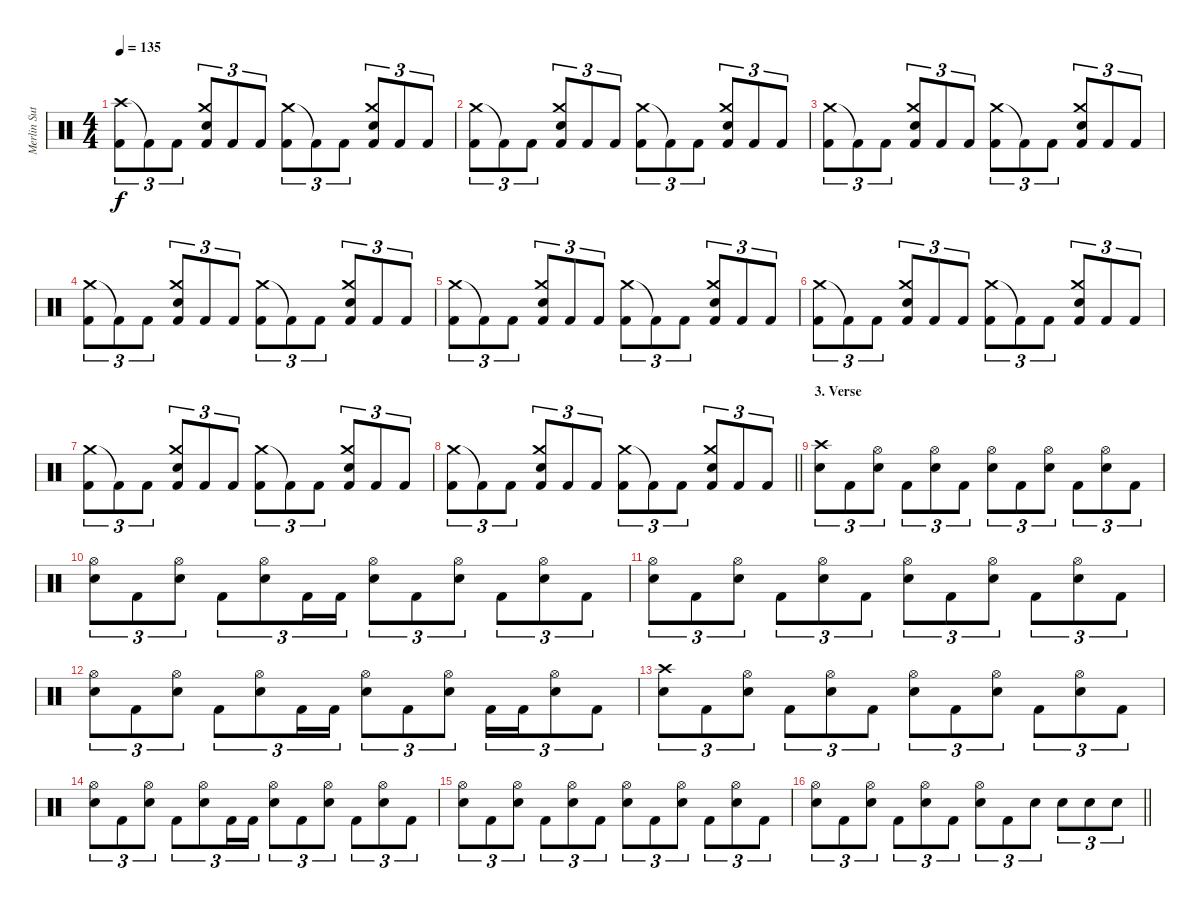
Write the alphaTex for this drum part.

\track ("Merlin Sutter" "Merlin Sut") {instrument percussion}
\staff {score}
\articulation defaults
\ts (4 4)
\tempo 135
\clef neutral
\ks c
("Crash high (hit)" "Kick (hit) 2").8{tu (3 2) dy f} "Kick (hit) 2"{t}.8{tu (3 2)} "Kick (hit) 2".8{tu (3 2)} ("Crash medium (hit)" "Snare (hit) 2" "Kick (hit) 2").8{tu (3 2)} "Kick (hit) 2".8{tu (3 2)} "Kick (hit) 2".8{tu (3 2)} ("Crash medium (hit)" "Kick (hit) 2").8{tu (3 2)} "Kick (hit) 2"{t}.8{tu (3 2)} "Kick (hit) 2".8{tu (3 2)} ("Crash medium (hit)" "Snare (hit) 2" "Kick (hit) 2").8{tu (3 2)} "Kick (hit) 2".8{tu (3 2)} "Kick (hit) 2".8{tu (3 2)} |
("Crash medium (hit)" "Kick (hit) 2").8{tu (3 2)} "Kick (hit) 2"{t}.8{tu (3 2)} "Kick (hit) 2".8{tu (3 2)} ("Crash medium (hit)" "Snare (hit) 2" "Kick (hit) 2").8{tu (3 2)} "Kick (hit) 2".8{tu (3 2)} "Kick (hit) 2".8{tu (3 2)} ("Crash medium (hit)" "Kick (hit) 2").8{tu (3 2)} "Kick (hit) 2"{t}.8{tu (3 2)} "Kick (hit) 2".8{tu (3 2)} ("Crash medium (hit)" "Snare (hit) 2" "Kick (hit) 2").8{tu (3 2)} "Kick (hit) 2".8{tu (3 2)} "Kick (hit) 2".8{tu (3 2)} |
("Crash medium (hit)" "Kick (hit) 2").8{tu (3 2)} "Kick (hit) 2"{t}.8{tu (3 2)} "Kick (hit) 2".8{tu (3 2)} ("Crash medium (hit)" "Snare (hit) 2" "Kick (hit) 2").8{tu (3 2)} "Kick (hit) 2".8{tu (3 2)} "Kick (hit) 2".8{tu (3 2)} ("Crash medium (hit)" "Kick (hit) 2").8{tu (3 2)} "Kick (hit) 2"{t}.8{tu (3 2)} "Kick (hit) 2".8{tu (3 2)} ("Crash medium (hit)" "Snare (hit) 2" "Kick (hit) 2").8{tu (3 2)} "Kick (hit) 2".8{tu (3 2)} "Kick (hit) 2".8{tu (3 2)} |
("Crash medium (hit)" "Kick (hit) 2").8{tu (3 2)} "Kick (hit) 2"{t}.8{tu (3 2)} "Kick (hit) 2".8{tu (3 2)} ("Crash medium (hit)" "Snare (hit) 2" "Kick (hit) 2").8{tu (3 2)} "Kick (hit) 2".8{tu (3 2)} "Kick (hit) 2".8{tu (3 2)} ("Crash medium (hit)" "Kick (hit) 2").8{tu (3 2)} "Kick (hit) 2"{t}.8{tu (3 2)} "Kick (hit) 2".8{tu (3 2)} ("Crash medium (hit)" "Snare (hit) 2" "Kick (hit) 2").8{tu (3 2)} "Kick (hit) 2".8{tu (3 2)} "Kick (hit) 2".8{tu (3 2)} |
("Crash medium (hit)" "Kick (hit) 2").8{tu (3 2)} "Kick (hit) 2"{t}.8{tu (3 2)} "Kick (hit) 2".8{tu (3 2)} ("Crash medium (hit)" "Snare (hit) 2" "Kick (hit) 2").8{tu (3 2)} "Kick (hit) 2".8{tu (3 2)} "Kick (hit) 2".8{tu (3 2)} ("Crash medium (hit)" "Kick (hit) 2").8{tu (3 2)} "Kick (hit) 2"{t}.8{tu (3 2)} "Kick (hit) 2".8{tu (3 2)} ("Crash medium (hit)" "Snare (hit) 2" "Kick (hit) 2").8{tu (3 2)} "Kick (hit) 2".8{tu (3 2)} "Kick (hit) 2".8{tu (3 2)} |
("Crash medium (hit)" "Kick (hit) 2").8{tu (3 2)} "Kick (hit) 2"{t}.8{tu (3 2)} "Kick (hit) 2".8{tu (3 2)} ("Crash medium (hit)" "Snare (hit) 2" "Kick (hit) 2").8{tu (3 2)} "Kick (hit) 2".8{tu (3 2)} "Kick (hit) 2".8{tu (3 2)} ("Crash medium (hit)" "Kick (hit) 2").8{tu (3 2)} "Kick (hit) 2"{t}.8{tu (3 2)} "Kick (hit) 2".8{tu (3 2)} ("Crash medium (hit)" "Snare (hit) 2" "Kick (hit) 2").8{tu (3 2)} "Kick (hit) 2".8{tu (3 2)} "Kick (hit) 2".8{tu (3 2)} |
("Crash medium (hit)" "Kick (hit) 2").8{tu (3 2)} "Kick (hit) 2"{t}.8{tu (3 2)} "Kick (hit) 2".8{tu (3 2)} ("Crash medium (hit)" "Snare (hit) 2" "Kick (hit) 2").8{tu (3 2)} "Kick (hit) 2".8{tu (3 2)} "Kick (hit) 2".8{tu (3 2)} ("Crash medium (hit)" "Kick (hit) 2").8{tu (3 2)} "Kick (hit) 2"{t}.8{tu (3 2)} "Kick (hit) 2".8{tu (3 2)} ("Crash medium (hit)" "Snare (hit) 2" "Kick (hit) 2").8{tu (3 2)} "Kick (hit) 2".8{tu (3 2)} "Kick (hit) 2".8{tu (3 2)} |
\barLineRight lightlight
("Crash medium (hit)" "Kick (hit) 2").8{tu (3 2)} "Kick (hit) 2"{t}.8{tu (3 2)} "Kick (hit) 2".8{tu (3 2)} ("Crash medium (hit)" "Snare (hit) 2" "Kick (hit) 2").8{tu (3 2)} "Kick (hit) 2".8{tu (3 2)} "Kick (hit) 2".8{tu (3 2)} ("Crash medium (hit)" "Kick (hit) 2").8{tu (3 2)} "Kick (hit) 2"{t}.8{tu (3 2)} "Kick (hit) 2".8{tu (3 2)} ("Crash medium (hit)" "Snare (hit) 2" "Kick (hit) 2").8{tu (3 2)} "Kick (hit) 2".8{tu (3 2)} "Kick (hit) 2".8{tu (3 2)} |
\section ("" "3. Verse")
("Crash high (hit)" "Snare (hit) 2").8{tu (3 2)} "Kick (hit) 2".8{tu (3 2)} ("Hi-Hat (open)" "Snare (hit) 2").8{tu (3 2)} "Kick (hit) 2".8{tu (3 2)} ("Hi-Hat (open)" "Snare (hit) 2").8{tu (3 2)} "Kick (hit) 2".8{tu (3 2)} ("Hi-Hat (open)" "Snare (hit) 2").8{tu (3 2)} "Kick (hit) 2".8{tu (3 2)} ("Hi-Hat (open)" "Snare (hit) 2").8{tu (3 2)} "Kick (hit) 2".8{tu (3 2)} ("Hi-Hat (open)" "Snare (hit) 2").8{tu (3 2)} "Kick (hit) 2".8{tu (3 2)} |
("Hi-Hat (open)" "Snare (hit) 2").8{tu (3 2)} "Kick (hit) 2".8{tu (3 2)} ("Hi-Hat (open)" "Snare (hit) 2").8{tu (3 2)} "Kick (hit) 2".8{tu (3 2)} ("Hi-Hat (open)" "Snare (hit) 2").8{tu (3 2)} "Kick (hit) 2".16{tu (3 2)} "Kick (hit) 2".16{tu (3 2)} ("Hi-Hat (open)" "Snare (hit) 2").8{tu (3 2)} "Kick (hit) 2".8{tu (3 2)} ("Hi-Hat (open)" "Snare (hit) 2").8{tu (3 2)} "Kick (hit) 2".8{tu (3 2)} ("Hi-Hat (open)" "Snare (hit) 2").8{tu (3 2)} "Kick (hit) 2".8{tu (3 2)} |
("Hi-Hat (open)" "Snare (hit) 2").8{tu (3 2)} "Kick (hit) 2".8{tu (3 2)} ("Hi-Hat (open)" "Snare (hit) 2").8{tu (3 2)} "Kick (hit) 2".8{tu (3 2)} ("Hi-Hat (open)" "Snare (hit) 2").8{tu (3 2)} "Kick (hit) 2".8{tu (3 2)} ("Hi-Hat (open)" "Snare (hit) 2").8{tu (3 2)} "Kick (hit) 2".8{tu (3 2)} ("Hi-Hat (open)" "Snare (hit) 2").8{tu (3 2)} "Kick (hit) 2".8{tu (3 2)} ("Hi-Hat (open)" "Snare (hit) 2").8{tu (3 2)} "Kick (hit) 2".8{tu (3 2)} |
("Hi-Hat (open)" "Snare (hit) 2").8{tu (3 2)} "Kick (hit) 2".8{tu (3 2)} ("Hi-Hat (open)" "Snare (hit) 2").8{tu (3 2)} "Kick (hit) 2".8{tu (3 2)} ("Hi-Hat (open)" "Snare (hit) 2").8{tu (3 2)} "Kick (hit) 2".16{tu (3 2)} "Kick (hit) 2".16{tu (3 2)} ("Hi-Hat (open)" "Snare (hit) 2").8{tu (3 2)} "Kick (hit) 2".8{tu (3 2)} ("Hi-Hat (open)" "Snare (hit) 2").8{tu (3 2)} "Kick (hit) 2".16{tu (3 2)} "Kick (hit) 2".16{tu (3 2)} ("Hi-Hat (open)" "Snare (hit) 2").8{tu (3 2)} "Kick (hit) 2".8{tu (3 2)} |
("Crash high (hit)" "Snare (hit) 2").8{tu (3 2)} "Kick (hit) 2".8{tu (3 2)} ("Hi-Hat (open)" "Snare (hit) 2").8{tu (3 2)} "Kick (hit) 2".8{tu (3 2)} ("Hi-Hat (open)" "Snare (hit) 2").8{tu (3 2)} "Kick (hit) 2".8{tu (3 2)} ("Hi-Hat (open)" "Snare (hit) 2").8{tu (3 2)} "Kick (hit) 2".8{tu (3 2)} ("Hi-Hat (open)" "Snare (hit) 2").8{tu (3 2)} "Kick (hit) 2".8{tu (3 2)} ("Hi-Hat (open)" "Snare (hit) 2").8{tu (3 2)} "Kick (hit) 2".8{tu (3 2)} |
("Hi-Hat (open)" "Snare (hit) 2").8{tu (3 2)} "Kick (hit) 2".8{tu (3 2)} ("Hi-Hat (open)" "Snare (hit) 2").8{tu (3 2)} "Kick (hit) 2".8{tu (3 2)} ("Hi-Hat (open)" "Snare (hit) 2").8{tu (3 2)} "Kick (hit) 2".16{tu (3 2)} "Kick (hit) 2".16{tu (3 2)} ("Hi-Hat (open)" "Snare (hit) 2").8{tu (3 2)} "Kick (hit) 2".8{tu (3 2)} ("Hi-Hat (open)" "Snare (hit) 2").8{tu (3 2)} "Kick (hit) 2".8{tu (3 2)} ("Hi-Hat (open)" "Snare (hit) 2").8{tu (3 2)} "Kick (hit) 2".8{tu (3 2)} |
("Hi-Hat (open)" "Snare (hit) 2").8{tu (3 2)} "Kick (hit) 2".8{tu (3 2)} ("Hi-Hat (open)" "Snare (hit) 2").8{tu (3 2)} "Kick (hit) 2".8{tu (3 2)} ("Hi-Hat (open)" "Snare (hit) 2").8{tu (3 2)} "Kick (hit) 2".8{tu (3 2)} ("Hi-Hat (open)" "Snare (hit) 2").8{tu (3 2)} "Kick (hit) 2".8{tu (3 2)} ("Hi-Hat (open)" "Snare (hit) 2").8{tu (3 2)} "Kick (hit) 2".8{tu (3 2)} ("Hi-Hat (open)" "Snare (hit) 2").8{tu (3 2)} "Kick (hit) 2".8{tu (3 2)} |
\barLineRight lightlight
("Hi-Hat (open)" "Snare (hit) 2").8{tu (3 2)} "Kick (hit) 2".8{tu (3 2)} ("Hi-Hat (open)" "Snare (hit) 2").8{tu (3 2)} "Kick (hit) 2".8{tu (3 2)} ("Hi-Hat (open)" "Snare (hit) 2").8{tu (3 2)} "Kick (hit) 2".8{tu (3 2)} ("Hi-Hat (open)" "Snare (hit) 2").8{tu (3 2)} "Kick (hit) 2".8{tu (3 2)} "Snare (hit) 2".8{tu (3 2)} "Snare (hit) 2".8{tu (3 2)} "Snare (hit) 2".8{tu (3 2)} "Snare (hit) 2".8{tu (3 2)}
